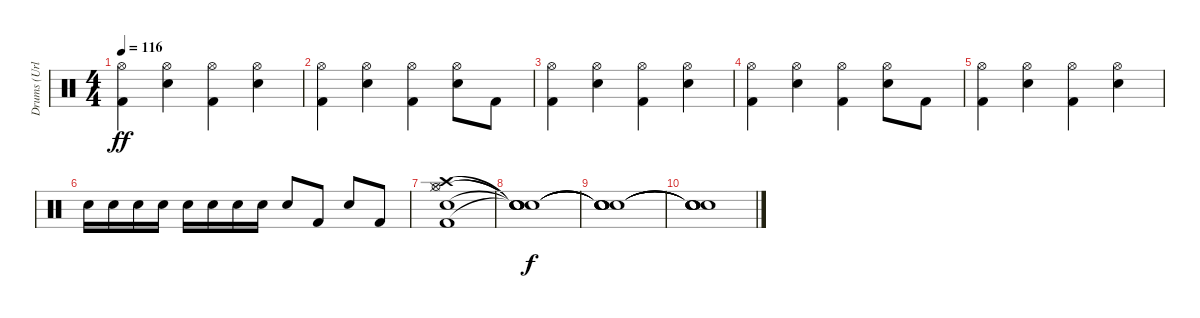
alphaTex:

\track ("Drums (Urlich)" "Drums (Url") {instrument percussion}
\staff {score}
\articulation defaults
\ts (4 4)
\tempo 116
\clef neutral
\ks c
("Kick (hit) 2" "Hi-Hat (open)").4{dy ff} ("Snare (hit) 2" "Hi-Hat (open)").4 ("Kick (hit) 2" "Hi-Hat (open)").4 ("Snare (hit) 2" "Hi-Hat (open)").4 |
("Kick (hit) 2" "Hi-Hat (open)").4 ("Snare (hit) 2" "Hi-Hat (open)").4 ("Kick (hit) 2" "Hi-Hat (open)").4 ("Snare (hit) 2" "Hi-Hat (open)").8 "Kick (hit) 2".8 |
("Kick (hit) 2" "Hi-Hat (open)").4 ("Snare (hit) 2" "Hi-Hat (open)").4 ("Kick (hit) 2" "Hi-Hat (open)").4 ("Snare (hit) 2" "Hi-Hat (open)").4 |
("Kick (hit) 2" "Hi-Hat (open)").4 ("Snare (hit) 2" "Hi-Hat (open)").4 ("Kick (hit) 2" "Hi-Hat (open)").4 ("Snare (hit) 2" "Hi-Hat (open)").8 "Kick (hit) 2".8 |
("Kick (hit) 2" "Hi-Hat (open)").4 ("Snare (hit) 2" "Hi-Hat (open)").4 ("Kick (hit) 2" "Hi-Hat (open)").4 ("Snare (hit) 2" "Hi-Hat (open)").4 |
"Snare (hit) 2".16 "Snare (hit) 2".16 "Snare (hit) 2".16 "Snare (hit) 2".16 "Snare (hit) 2".16 "Snare (hit) 2".16 "Snare (hit) 2".16 "Snare (hit) 2".16 "Snare (hit) 2".8 "Kick (hit) 2".8 "Snare (hit) 2".8 "Kick (hit) 2".8 |
("Kick (hit) 2" "Snare (hit) 2" "Hi-Hat (closed)" "Hi-Hat (open)" "Crash high (hit)").1{volume 3} |
("Snare (hit)"{t} "Snare (hit)"{t} "Snare (hit)"{t} "Snare (hit)"{t} "Snare (hit)"{t}).1{dy f} |
("Snare (hit)"{t} "Snare (hit)"{t} "Snare (hit)"{t} "Snare (hit)"{t} "Snare (hit)"{t}).1 |
("Snare (hit)"{t} "Snare (hit)"{t} "Snare (hit)"{t} "Snare (hit)"{t} "Snare (hit)"{t}).1
